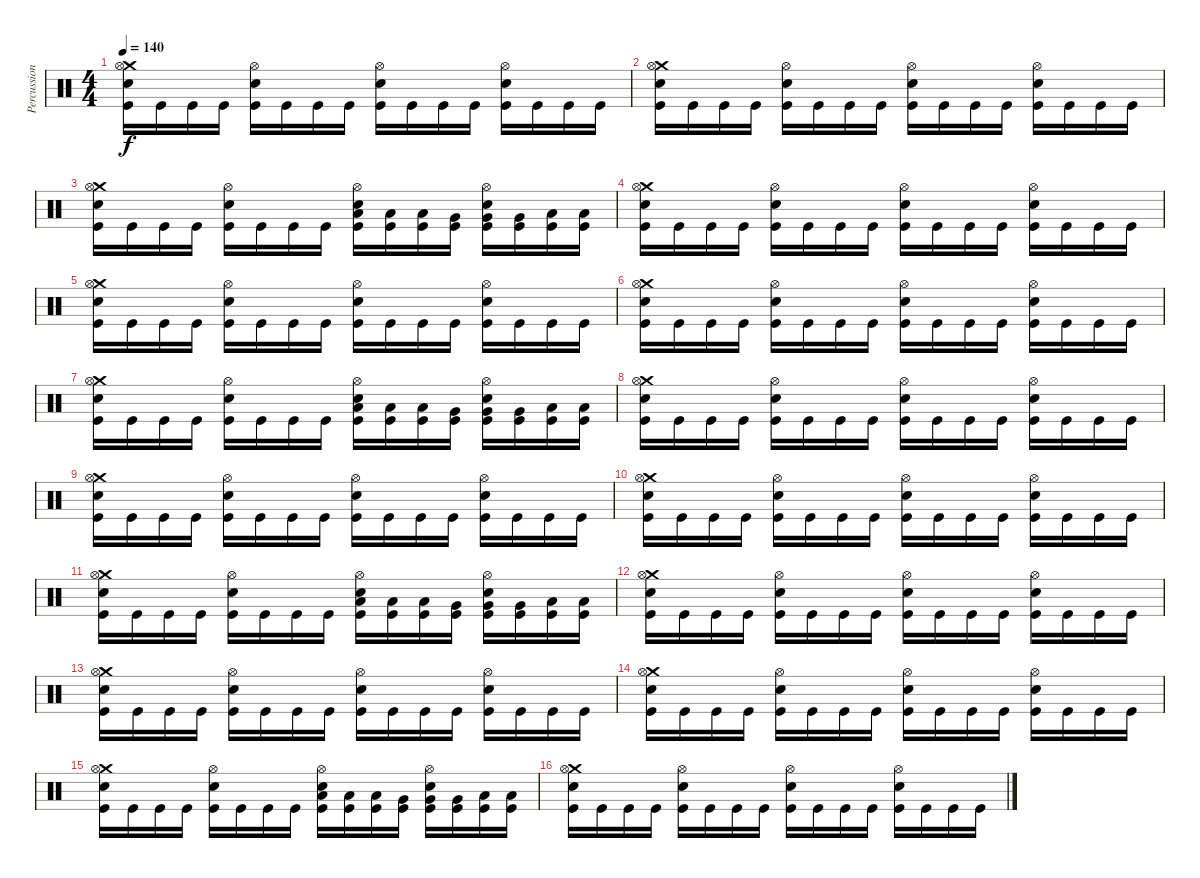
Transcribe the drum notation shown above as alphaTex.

\track ("Percussion" "Percussion") {instrument percussion}
\staff {score}
\articulation defaults
\ts (4 4)
\tempo 140
\clef neutral
\ks c
("Crash medium (hit)" "Hi-Hat (open)" "Electric Snare (hit)" "Kick (hit)").16{dy f} "Kick (hit)".16 "Kick (hit)".16 "Kick (hit)".16 ("Hi-Hat (open)" "Electric Snare (hit)" "Kick (hit)").16 "Kick (hit)".16 "Kick (hit)".16 "Kick (hit)".16 ("Hi-Hat (open)" "Electric Snare (hit)" "Kick (hit)").16 "Kick (hit)".16 "Kick (hit)".16 "Kick (hit)".16 ("Hi-Hat (open)" "Electric Snare (hit)" "Kick (hit)").16 "Kick (hit)".16 "Kick (hit)".16 "Kick (hit)".16 |
("Crash medium (hit)" "Hi-Hat (open)" "Electric Snare (hit)" "Kick (hit)").16 "Kick (hit)".16 "Kick (hit)".16 "Kick (hit)".16 ("Hi-Hat (open)" "Electric Snare (hit)" "Kick (hit)").16 "Kick (hit)".16 "Kick (hit)".16 "Kick (hit)".16 ("Hi-Hat (open)" "Electric Snare (hit)" "Kick (hit)").16 "Kick (hit)".16 "Kick (hit)".16 "Kick (hit)".16 ("Hi-Hat (open)" "Electric Snare (hit)" "Kick (hit)").16 "Kick (hit)".16 "Kick (hit)".16 "Kick (hit)".16 |
("Crash medium (hit)" "Hi-Hat (open)" "Electric Snare (hit)" "Kick (hit)").16 "Kick (hit)".16 "Kick (hit)".16 "Kick (hit)".16 ("Hi-Hat (open)" "Electric Snare (hit)" "Kick (hit)").16 "Kick (hit)".16 "Kick (hit)".16 "Kick (hit)".16 ("Low Tom (hit)" "Hi-Hat (open)" "Electric Snare (hit)" "Kick (hit)").16 ("Low Tom (hit)" "Kick (hit)").16 ("Low Tom (hit)" "Kick (hit)").16 ("Very Low Tom (hit)" "Kick (hit)").16 ("Very Low Tom (hit)" "Hi-Hat (open)" "Electric Snare (hit)" "Kick (hit)").16 ("Very Low Tom (hit)" "Kick (hit)").16 ("Low Floor Tom (hit)" "Kick (hit)").16 ("Low Floor Tom (hit)" "Kick (hit)").16 |
("Crash medium (hit)" "Hi-Hat (open)" "Electric Snare (hit)" "Kick (hit)").16 "Kick (hit)".16 "Kick (hit)".16 "Kick (hit)".16 ("Hi-Hat (open)" "Electric Snare (hit)" "Kick (hit)").16 "Kick (hit)".16 "Kick (hit)".16 "Kick (hit)".16 ("Hi-Hat (open)" "Electric Snare (hit)" "Kick (hit)").16 "Kick (hit)".16 "Kick (hit)".16 "Kick (hit)".16 ("Hi-Hat (open)" "Electric Snare (hit)" "Kick (hit)").16 "Kick (hit)".16 "Kick (hit)".16 "Kick (hit)".16 |
("Crash medium (hit)" "Hi-Hat (open)" "Electric Snare (hit)" "Kick (hit)").16 "Kick (hit)".16 "Kick (hit)".16 "Kick (hit)".16 ("Hi-Hat (open)" "Electric Snare (hit)" "Kick (hit)").16 "Kick (hit)".16 "Kick (hit)".16 "Kick (hit)".16 ("Hi-Hat (open)" "Electric Snare (hit)" "Kick (hit)").16 "Kick (hit)".16 "Kick (hit)".16 "Kick (hit)".16 ("Hi-Hat (open)" "Electric Snare (hit)" "Kick (hit)").16 "Kick (hit)".16 "Kick (hit)".16 "Kick (hit)".16 |
("Crash medium (hit)" "Hi-Hat (open)" "Electric Snare (hit)" "Kick (hit)").16 "Kick (hit)".16 "Kick (hit)".16 "Kick (hit)".16 ("Hi-Hat (open)" "Electric Snare (hit)" "Kick (hit)").16 "Kick (hit)".16 "Kick (hit)".16 "Kick (hit)".16 ("Hi-Hat (open)" "Electric Snare (hit)" "Kick (hit)").16 "Kick (hit)".16 "Kick (hit)".16 "Kick (hit)".16 ("Hi-Hat (open)" "Electric Snare (hit)" "Kick (hit)").16 "Kick (hit)".16 "Kick (hit)".16 "Kick (hit)".16 |
("Crash medium (hit)" "Hi-Hat (open)" "Electric Snare (hit)" "Kick (hit)").16 "Kick (hit)".16 "Kick (hit)".16 "Kick (hit)".16 ("Hi-Hat (open)" "Electric Snare (hit)" "Kick (hit)").16 "Kick (hit)".16 "Kick (hit)".16 "Kick (hit)".16 ("Low Tom (hit)" "Hi-Hat (open)" "Electric Snare (hit)" "Kick (hit)").16 ("Low Tom (hit)" "Kick (hit)").16 ("Low Tom (hit)" "Kick (hit)").16 ("Very Low Tom (hit)" "Kick (hit)").16 ("Very Low Tom (hit)" "Hi-Hat (open)" "Electric Snare (hit)" "Kick (hit)").16 ("Very Low Tom (hit)" "Kick (hit)").16 ("Low Floor Tom (hit)" "Kick (hit)").16 ("Low Floor Tom (hit)" "Kick (hit)").16 |
("Crash medium (hit)" "Hi-Hat (open)" "Electric Snare (hit)" "Kick (hit)").16 "Kick (hit)".16 "Kick (hit)".16 "Kick (hit)".16 ("Hi-Hat (open)" "Electric Snare (hit)" "Kick (hit)").16 "Kick (hit)".16 "Kick (hit)".16 "Kick (hit)".16 ("Hi-Hat (open)" "Electric Snare (hit)" "Kick (hit)").16 "Kick (hit)".16 "Kick (hit)".16 "Kick (hit)".16 ("Hi-Hat (open)" "Electric Snare (hit)" "Kick (hit)").16 "Kick (hit)".16 "Kick (hit)".16 "Kick (hit)".16 |
("Crash medium (hit)" "Hi-Hat (open)" "Electric Snare (hit)" "Kick (hit)").16 "Kick (hit)".16 "Kick (hit)".16 "Kick (hit)".16 ("Hi-Hat (open)" "Electric Snare (hit)" "Kick (hit)").16 "Kick (hit)".16 "Kick (hit)".16 "Kick (hit)".16 ("Hi-Hat (open)" "Electric Snare (hit)" "Kick (hit)").16 "Kick (hit)".16 "Kick (hit)".16 "Kick (hit)".16 ("Hi-Hat (open)" "Electric Snare (hit)" "Kick (hit)").16 "Kick (hit)".16 "Kick (hit)".16 "Kick (hit)".16 |
("Crash medium (hit)" "Hi-Hat (open)" "Electric Snare (hit)" "Kick (hit)").16 "Kick (hit)".16 "Kick (hit)".16 "Kick (hit)".16 ("Hi-Hat (open)" "Electric Snare (hit)" "Kick (hit)").16 "Kick (hit)".16 "Kick (hit)".16 "Kick (hit)".16 ("Hi-Hat (open)" "Electric Snare (hit)" "Kick (hit)").16 "Kick (hit)".16 "Kick (hit)".16 "Kick (hit)".16 ("Hi-Hat (open)" "Electric Snare (hit)" "Kick (hit)").16 "Kick (hit)".16 "Kick (hit)".16 "Kick (hit)".16 |
("Crash medium (hit)" "Hi-Hat (open)" "Electric Snare (hit)" "Kick (hit)").16 "Kick (hit)".16 "Kick (hit)".16 "Kick (hit)".16 ("Hi-Hat (open)" "Electric Snare (hit)" "Kick (hit)").16 "Kick (hit)".16 "Kick (hit)".16 "Kick (hit)".16 ("Low Tom (hit)" "Hi-Hat (open)" "Electric Snare (hit)" "Kick (hit)").16 ("Low Tom (hit)" "Kick (hit)").16 ("Low Tom (hit)" "Kick (hit)").16 ("Very Low Tom (hit)" "Kick (hit)").16 ("Very Low Tom (hit)" "Hi-Hat (open)" "Electric Snare (hit)" "Kick (hit)").16 ("Very Low Tom (hit)" "Kick (hit)").16 ("Low Floor Tom (hit)" "Kick (hit)").16 ("Low Floor Tom (hit)" "Kick (hit)").16 |
("Crash medium (hit)" "Hi-Hat (open)" "Electric Snare (hit)" "Kick (hit)").16 "Kick (hit)".16 "Kick (hit)".16 "Kick (hit)".16 ("Hi-Hat (open)" "Electric Snare (hit)" "Kick (hit)").16 "Kick (hit)".16 "Kick (hit)".16 "Kick (hit)".16 ("Hi-Hat (open)" "Electric Snare (hit)" "Kick (hit)").16 "Kick (hit)".16 "Kick (hit)".16 "Kick (hit)".16 ("Hi-Hat (open)" "Electric Snare (hit)" "Kick (hit)").16 "Kick (hit)".16 "Kick (hit)".16 "Kick (hit)".16 |
("Crash medium (hit)" "Hi-Hat (open)" "Electric Snare (hit)" "Kick (hit)").16 "Kick (hit)".16 "Kick (hit)".16 "Kick (hit)".16 ("Hi-Hat (open)" "Electric Snare (hit)" "Kick (hit)").16 "Kick (hit)".16 "Kick (hit)".16 "Kick (hit)".16 ("Hi-Hat (open)" "Electric Snare (hit)" "Kick (hit)").16 "Kick (hit)".16 "Kick (hit)".16 "Kick (hit)".16 ("Hi-Hat (open)" "Electric Snare (hit)" "Kick (hit)").16 "Kick (hit)".16 "Kick (hit)".16 "Kick (hit)".16 |
("Crash medium (hit)" "Hi-Hat (open)" "Electric Snare (hit)" "Kick (hit)").16 "Kick (hit)".16 "Kick (hit)".16 "Kick (hit)".16 ("Hi-Hat (open)" "Electric Snare (hit)" "Kick (hit)").16 "Kick (hit)".16 "Kick (hit)".16 "Kick (hit)".16 ("Hi-Hat (open)" "Electric Snare (hit)" "Kick (hit)").16 "Kick (hit)".16 "Kick (hit)".16 "Kick (hit)".16 ("Hi-Hat (open)" "Electric Snare (hit)" "Kick (hit)").16 "Kick (hit)".16 "Kick (hit)".16 "Kick (hit)".16 |
("Crash medium (hit)" "Hi-Hat (open)" "Electric Snare (hit)" "Kick (hit)").16 "Kick (hit)".16 "Kick (hit)".16 "Kick (hit)".16 ("Hi-Hat (open)" "Electric Snare (hit)" "Kick (hit)").16 "Kick (hit)".16 "Kick (hit)".16 "Kick (hit)".16 ("Low Tom (hit)" "Hi-Hat (open)" "Electric Snare (hit)" "Kick (hit)").16 ("Low Tom (hit)" "Kick (hit)").16 ("Low Tom (hit)" "Kick (hit)").16 ("Very Low Tom (hit)" "Kick (hit)").16 ("Very Low Tom (hit)" "Hi-Hat (open)" "Electric Snare (hit)" "Kick (hit)").16 ("Very Low Tom (hit)" "Kick (hit)").16 ("Low Floor Tom (hit)" "Kick (hit)").16 ("Low Floor Tom (hit)" "Kick (hit)").16 |
("Crash medium (hit)" "Hi-Hat (open)" "Electric Snare (hit)" "Kick (hit)").16 "Kick (hit)".16 "Kick (hit)".16 "Kick (hit)".16 ("Hi-Hat (open)" "Electric Snare (hit)" "Kick (hit)").16 "Kick (hit)".16 "Kick (hit)".16 "Kick (hit)".16 ("Hi-Hat (open)" "Electric Snare (hit)" "Kick (hit)").16 "Kick (hit)".16 "Kick (hit)".16 "Kick (hit)".16 ("Hi-Hat (open)" "Electric Snare (hit)" "Kick (hit)").16 "Kick (hit)".16 "Kick (hit)".16 "Kick (hit)".16
